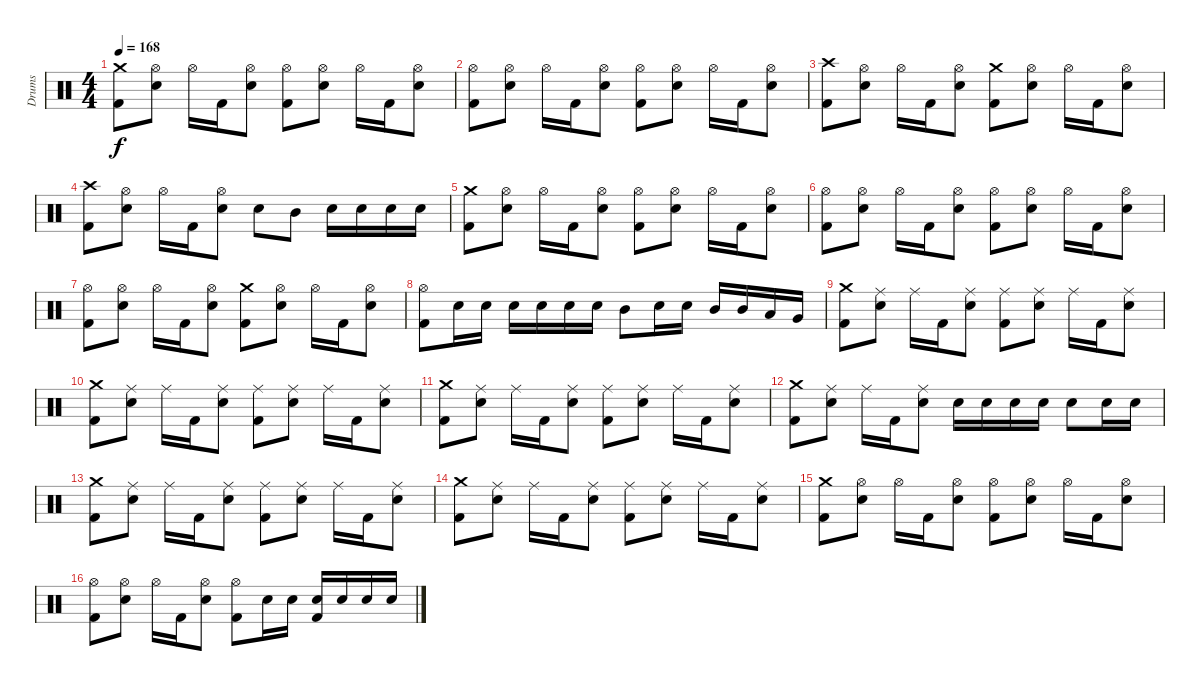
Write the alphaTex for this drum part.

\track ("Drums" "Drums") {instrument percussion}
\staff {score}
\articulation defaults
\ts (4 4)
\tempo 168
\clef neutral
\ks c
("Crash medium (hit)" "Kick (hit) 2").8{dy f volume 16} ("Hi-Hat (open)" "Electric Snare (hit)").8 "Hi-Hat (open)".16 "Kick (hit) 2".16 ("Hi-Hat (open)" "Electric Snare (hit)").8 ("Hi-Hat (open)" "Kick (hit) 2").8 ("Hi-Hat (open)" "Electric Snare (hit)").8 "Hi-Hat (open)".16 "Kick (hit) 2".16 ("Hi-Hat (open)" "Electric Snare (hit)").8 |
("Hi-Hat (open)" "Kick (hit) 2").8 ("Hi-Hat (open)" "Electric Snare (hit)").8 "Hi-Hat (open)".16 "Kick (hit) 2".16 ("Hi-Hat (open)" "Electric Snare (hit)").8 ("Hi-Hat (open)" "Kick (hit) 2").8 ("Hi-Hat (open)" "Electric Snare (hit)").8 "Hi-Hat (open)".16 "Kick (hit) 2".16 ("Hi-Hat (open)" "Electric Snare (hit)").8 |
("Crash high (hit)" "Kick (hit) 2").8 ("Hi-Hat (open)" "Electric Snare (hit)").8 "Hi-Hat (open)".16 "Kick (hit) 2".16 ("Hi-Hat (open)" "Electric Snare (hit)").8 ("Crash medium (hit)" "Kick (hit) 2").8 ("Hi-Hat (open)" "Electric Snare (hit)").8 "Hi-Hat (open)".16 "Kick (hit) 2".16 ("Hi-Hat (open)" "Electric Snare (hit)").8 |
("Crash high (hit)" "Kick (hit) 2").8 ("Hi-Hat (open)" "Electric Snare (hit)").8 "Hi-Hat (open)".16 "Kick (hit) 2".16 ("Hi-Hat (open)" "Electric Snare (hit)").8 "Electric Snare (hit)".8 "Mid Tom (hit)".8 "Electric Snare (hit)".16 "Electric Snare (hit)".16 "Electric Snare (hit)".16 "Electric Snare (hit)".16 |
("Crash medium (hit)" "Kick (hit) 2").8 ("Hi-Hat (open)" "Electric Snare (hit)").8 "Hi-Hat (open)".16 "Kick (hit) 2".16 ("Hi-Hat (open)" "Electric Snare (hit)").8 ("Hi-Hat (open)" "Kick (hit) 2").8 ("Hi-Hat (open)" "Electric Snare (hit)").8 "Hi-Hat (open)".16 "Kick (hit) 2".16 ("Hi-Hat (open)" "Electric Snare (hit)").8 |
("Hi-Hat (open)" "Kick (hit) 2").8 ("Hi-Hat (open)" "Electric Snare (hit)").8 "Hi-Hat (open)".16 "Kick (hit) 2".16 ("Hi-Hat (open)" "Electric Snare (hit)").8 ("Hi-Hat (open)" "Kick (hit) 2").8 ("Hi-Hat (open)" "Electric Snare (hit)").8 "Hi-Hat (open)".16 "Kick (hit) 2".16 ("Hi-Hat (open)" "Electric Snare (hit)").8 |
("Hi-Hat (open)" "Kick (hit) 2").8 ("Hi-Hat (open)" "Electric Snare (hit)").8 "Hi-Hat (open)".16 "Kick (hit) 2".16 ("Hi-Hat (open)" "Electric Snare (hit)").8 ("Crash medium (hit)" "Kick (hit) 2").8 ("Hi-Hat (open)" "Electric Snare (hit)").8 "Hi-Hat (open)".16 "Kick (hit) 2".16 ("Hi-Hat (open)" "Electric Snare (hit)").8 |
("Hi-Hat (open)" "Kick (hit) 2").8 "Electric Snare (hit)".16 "Electric Snare (hit)".16 "Electric Snare (hit)".16 "Electric Snare (hit)".16 "Electric Snare (hit)".16 "Electric Snare (hit)".16 "Mid Tom (hit)".8 "Electric Snare (hit)".16 "Electric Snare (hit)".16 "Mid Tom (hit)".16 "Mid Tom (hit)".16 "Low Tom (hit)".16 "Very Low Tom (hit)".16 |
("Crash medium (hit)" "Kick (hit) 2").8 ("Ride (middle)" "Electric Snare (hit)").8 "Ride (middle)".16 "Kick (hit) 2".16 ("Ride (middle)" "Electric Snare (hit)").8 ("Ride (middle)" "Kick (hit) 2").8 ("Ride (middle)" "Electric Snare (hit)").8 "Ride (middle)".16 "Kick (hit) 2".16 ("Ride (middle)" "Electric Snare (hit)").8 |
("Crash medium (hit)" "Kick (hit) 2").8 ("Ride (middle)" "Electric Snare (hit)").8 "Ride (middle)".16 "Kick (hit) 2".16 ("Ride (middle)" "Electric Snare (hit)").8 ("Ride (middle)" "Kick (hit) 2").8 ("Ride (middle)" "Electric Snare (hit)").8 "Ride (middle)".16 "Kick (hit) 2".16 ("Ride (middle)" "Electric Snare (hit)").8 |
("Crash medium (hit)" "Kick (hit) 2").8 ("Ride (middle)" "Electric Snare (hit)").8 "Ride (middle)".16 "Kick (hit) 2".16 ("Ride (middle)" "Electric Snare (hit)").8 ("Ride (middle)" "Kick (hit) 2").8 ("Ride (middle)" "Electric Snare (hit)").8 "Ride (middle)".16 "Kick (hit) 2".16 ("Ride (middle)" "Electric Snare (hit)").8 |
("Crash medium (hit)" "Kick (hit) 2").8 ("Ride (middle)" "Electric Snare (hit)").8 "Ride (middle)".16 "Kick (hit) 2".16 ("Ride (middle)" "Electric Snare (hit)").8 "Electric Snare (hit)".16 "Electric Snare (hit)".16 "Electric Snare (hit)".16 "Electric Snare (hit)".16 "Electric Snare (hit)".8 "Electric Snare (hit)".16 "Electric Snare (hit)".16 |
("Crash medium (hit)" "Kick (hit) 2").8 ("Ride (middle)" "Electric Snare (hit)").8 "Ride (middle)".16 "Kick (hit) 2".16 ("Ride (middle)" "Electric Snare (hit)").8 ("Ride (middle)" "Kick (hit) 2").8 ("Ride (middle)" "Electric Snare (hit)").8 "Ride (middle)".16 "Kick (hit) 2".16 ("Ride (middle)" "Electric Snare (hit)").8 |
("Crash medium (hit)" "Kick (hit) 2").8 ("Ride (middle)" "Electric Snare (hit)").8 "Ride (middle)".16 "Kick (hit) 2".16 ("Ride (middle)" "Electric Snare (hit)").8 ("Ride (middle)" "Kick (hit) 2").8 ("Ride (middle)" "Electric Snare (hit)").8 "Ride (middle)".16 "Kick (hit) 2".16 ("Ride (middle)" "Electric Snare (hit)").8 |
("Crash medium (hit)" "Kick (hit) 2").8 ("Hi-Hat (open)" "Electric Snare (hit)").8 "Hi-Hat (open)".16 "Kick (hit) 2".16 ("Hi-Hat (open)" "Electric Snare (hit)").8 ("Hi-Hat (open)" "Kick (hit) 2").8 ("Hi-Hat (open)" "Electric Snare (hit)").8 "Hi-Hat (open)".16 "Kick (hit) 2".16 ("Hi-Hat (open)" "Electric Snare (hit)").8 |
("Hi-Hat (open)" "Kick (hit) 2").8 ("Hi-Hat (open)" "Electric Snare (hit)").8 "Hi-Hat (open)".16 "Kick (hit) 2".16 ("Hi-Hat (open)" "Electric Snare (hit)").8 ("Hi-Hat (open)" "Kick (hit) 2").8 "Electric Snare (hit)".16 "Electric Snare (hit)".16 ("Electric Snare (hit)" "Kick (hit) 2").16 "Electric Snare (hit)".16 "Electric Snare (hit)".16 "Electric Snare (hit)".16
